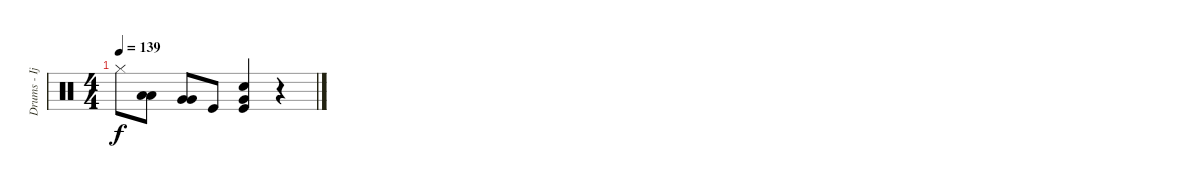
\track ("Drums - Ijichi" "Drums - Ij") {instrument percussion}
\staff {score}
\articulation defaults
\ts (4 4)
\tempo 139
\clef neutral
\ks c "Hi-Hat (closed)".8{dy f}
("Low Tom (hit)" "Low Tom (hit)").8 ("Very Low Tom (hit)" "Very Low Tom (hit)").8 "Kick (hit)".8 ("Electric Snare (hit)" "Very Low Tom (hit)" "Kick (hit)").4 r.4
